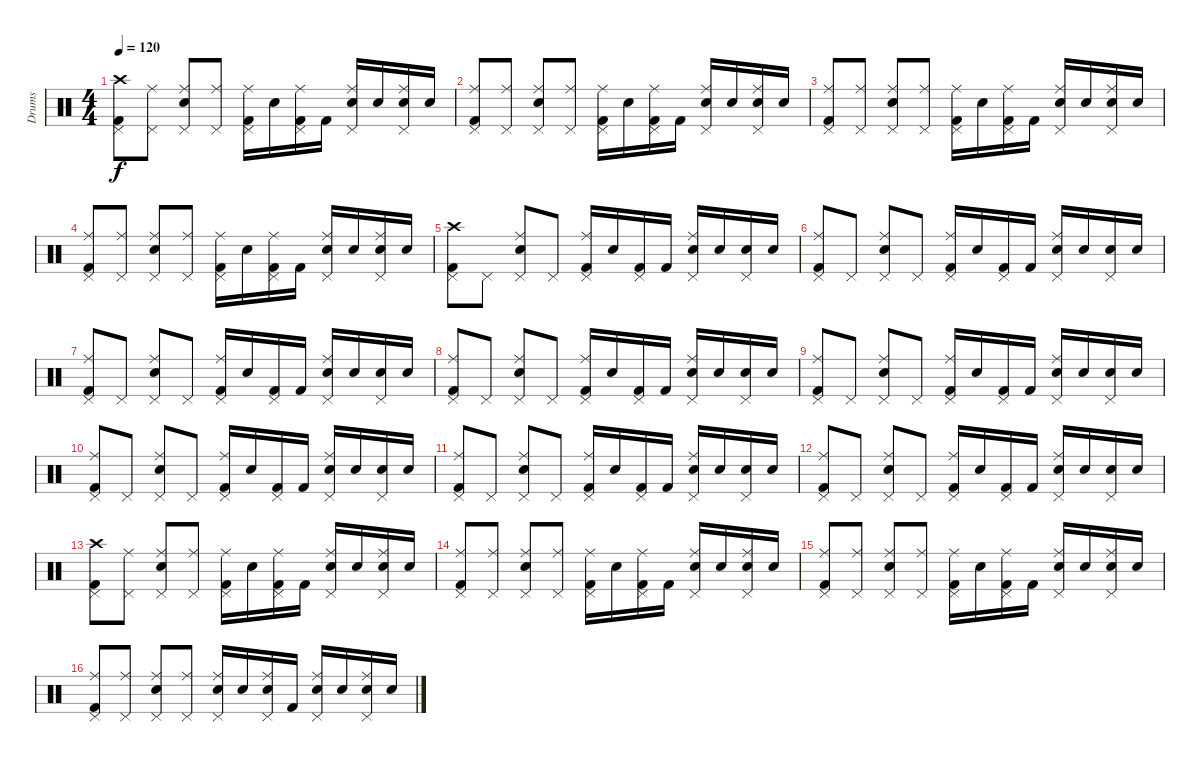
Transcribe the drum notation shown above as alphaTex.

\track ("Drums" "Drums") {instrument percussion}
\staff {score}
\articulation defaults
\ts (4 4)
\tempo 120
\clef neutral
\ks c
("Crash high (hit)" "Kick (hit) 2" "Pedal Hi-Hat (hit)").8{dy f} ("Ride (middle)" "Pedal Hi-Hat (hit)").8 ("Ride (middle)" "Electric Snare (hit)" "Pedal Hi-Hat (hit)").8 ("Ride (middle)" "Pedal Hi-Hat (hit)").8 ("Ride (middle)" "Kick (hit) 2" "Pedal Hi-Hat (hit)").16 "Electric Snare (hit)".16 ("Ride (middle)" "Kick (hit) 2" "Pedal Hi-Hat (hit)").16 "Kick (hit) 2".16 ("Ride (middle)" "Electric Snare (hit)" "Pedal Hi-Hat (hit)").16 "Electric Snare (hit)".16 ("Ride (middle)" "Electric Snare (hit)" "Pedal Hi-Hat (hit)").16 "Electric Snare (hit)".16 |
("Ride (middle)" "Kick (hit) 2" "Pedal Hi-Hat (hit)").8 ("Ride (middle)" "Pedal Hi-Hat (hit)").8 ("Ride (middle)" "Electric Snare (hit)" "Pedal Hi-Hat (hit)").8 ("Ride (middle)" "Pedal Hi-Hat (hit)").8 ("Ride (middle)" "Kick (hit) 2" "Pedal Hi-Hat (hit)").16 "Electric Snare (hit)".16 ("Ride (middle)" "Kick (hit) 2" "Pedal Hi-Hat (hit)").16 "Kick (hit) 2".16 ("Ride (middle)" "Electric Snare (hit)" "Pedal Hi-Hat (hit)").16 "Electric Snare (hit)".16 ("Ride (middle)" "Electric Snare (hit)" "Pedal Hi-Hat (hit)").16 "Electric Snare (hit)".16 |
("Ride (middle)" "Kick (hit) 2" "Pedal Hi-Hat (hit)").8 ("Ride (middle)" "Pedal Hi-Hat (hit)").8 ("Ride (middle)" "Electric Snare (hit)" "Pedal Hi-Hat (hit)").8 ("Ride (middle)" "Pedal Hi-Hat (hit)").8 ("Ride (middle)" "Kick (hit) 2" "Pedal Hi-Hat (hit)").16 "Electric Snare (hit)".16 ("Ride (middle)" "Kick (hit) 2" "Pedal Hi-Hat (hit)").16 "Kick (hit) 2".16 ("Ride (middle)" "Electric Snare (hit)" "Pedal Hi-Hat (hit)").16 "Electric Snare (hit)".16 ("Ride (middle)" "Electric Snare (hit)" "Pedal Hi-Hat (hit)").16 "Electric Snare (hit)".16 |
("Ride (middle)" "Kick (hit) 2" "Pedal Hi-Hat (hit)").8 ("Ride (middle)" "Pedal Hi-Hat (hit)").8 ("Ride (middle)" "Electric Snare (hit)" "Pedal Hi-Hat (hit)").8 ("Ride (middle)" "Pedal Hi-Hat (hit)").8 ("Ride (middle)" "Kick (hit) 2" "Pedal Hi-Hat (hit)").16 "Electric Snare (hit)".16 ("Ride (middle)" "Kick (hit) 2" "Pedal Hi-Hat (hit)").16 "Kick (hit) 2".16 ("Ride (middle)" "Electric Snare (hit)" "Pedal Hi-Hat (hit)").16 "Electric Snare (hit)".16 ("Ride (middle)" "Electric Snare (hit)" "Pedal Hi-Hat (hit)").16 "Electric Snare (hit)".16 |
("Crash high (hit)" "Kick (hit) 2" "Pedal Hi-Hat (hit)").8 "Pedal Hi-Hat (hit)".8 ("Ride (middle)" "Electric Snare (hit)" "Pedal Hi-Hat (hit)").8 "Pedal Hi-Hat (hit)".8 ("Ride (middle)" "Kick (hit) 2" "Pedal Hi-Hat (hit)").16 "Electric Snare (hit)".16 ("Kick (hit) 2" "Pedal Hi-Hat (hit)").16 "Kick (hit) 2".16 ("Ride (middle)" "Electric Snare (hit)" "Pedal Hi-Hat (hit)").16 "Electric Snare (hit)".16 ("Electric Snare (hit)" "Pedal Hi-Hat (hit)").16 "Electric Snare (hit)".16 |
("Ride (middle)" "Kick (hit) 2" "Pedal Hi-Hat (hit)").8 "Pedal Hi-Hat (hit)".8 ("Ride (middle)" "Electric Snare (hit)" "Pedal Hi-Hat (hit)").8 "Pedal Hi-Hat (hit)".8 ("Ride (middle)" "Kick (hit) 2" "Pedal Hi-Hat (hit)").16 "Electric Snare (hit)".16 ("Kick (hit) 2" "Pedal Hi-Hat (hit)").16 "Kick (hit) 2".16 ("Ride (middle)" "Electric Snare (hit)" "Pedal Hi-Hat (hit)").16 "Electric Snare (hit)".16 ("Electric Snare (hit)" "Pedal Hi-Hat (hit)").16 "Electric Snare (hit)".16 |
("Ride (middle)" "Kick (hit) 2" "Pedal Hi-Hat (hit)").8 "Pedal Hi-Hat (hit)".8 ("Ride (middle)" "Electric Snare (hit)" "Pedal Hi-Hat (hit)").8 "Pedal Hi-Hat (hit)".8 ("Ride (middle)" "Kick (hit) 2" "Pedal Hi-Hat (hit)").16 "Electric Snare (hit)".16 ("Kick (hit) 2" "Pedal Hi-Hat (hit)").16 "Kick (hit) 2".16 ("Ride (middle)" "Electric Snare (hit)" "Pedal Hi-Hat (hit)").16 "Electric Snare (hit)".16 ("Electric Snare (hit)" "Pedal Hi-Hat (hit)").16 "Electric Snare (hit)".16 |
("Ride (middle)" "Kick (hit) 2" "Pedal Hi-Hat (hit)").8 "Pedal Hi-Hat (hit)".8 ("Ride (middle)" "Electric Snare (hit)" "Pedal Hi-Hat (hit)").8 "Pedal Hi-Hat (hit)".8 ("Ride (middle)" "Kick (hit) 2" "Pedal Hi-Hat (hit)").16 "Electric Snare (hit)".16 ("Kick (hit) 2" "Pedal Hi-Hat (hit)").16 "Kick (hit) 2".16 ("Ride (middle)" "Electric Snare (hit)" "Pedal Hi-Hat (hit)").16 "Electric Snare (hit)".16 ("Electric Snare (hit)" "Pedal Hi-Hat (hit)").16 "Electric Snare (hit)".16 |
("Ride (middle)" "Kick (hit) 2" "Pedal Hi-Hat (hit)").8 "Pedal Hi-Hat (hit)".8 ("Ride (middle)" "Electric Snare (hit)" "Pedal Hi-Hat (hit)").8 "Pedal Hi-Hat (hit)".8 ("Ride (middle)" "Kick (hit) 2" "Pedal Hi-Hat (hit)").16 "Electric Snare (hit)".16 ("Kick (hit) 2" "Pedal Hi-Hat (hit)").16 "Kick (hit) 2".16 ("Ride (middle)" "Electric Snare (hit)" "Pedal Hi-Hat (hit)").16 "Electric Snare (hit)".16 ("Electric Snare (hit)" "Pedal Hi-Hat (hit)").16 "Electric Snare (hit)".16 |
("Ride (middle)" "Kick (hit) 2" "Pedal Hi-Hat (hit)").8 "Pedal Hi-Hat (hit)".8 ("Ride (middle)" "Electric Snare (hit)" "Pedal Hi-Hat (hit)").8 "Pedal Hi-Hat (hit)".8 ("Ride (middle)" "Kick (hit) 2" "Pedal Hi-Hat (hit)").16 "Electric Snare (hit)".16 ("Kick (hit) 2" "Pedal Hi-Hat (hit)").16 "Kick (hit) 2".16 ("Ride (middle)" "Electric Snare (hit)" "Pedal Hi-Hat (hit)").16 "Electric Snare (hit)".16 ("Electric Snare (hit)" "Pedal Hi-Hat (hit)").16 "Electric Snare (hit)".16 |
("Ride (middle)" "Kick (hit) 2" "Pedal Hi-Hat (hit)").8 "Pedal Hi-Hat (hit)".8 ("Ride (middle)" "Electric Snare (hit)" "Pedal Hi-Hat (hit)").8 "Pedal Hi-Hat (hit)".8 ("Ride (middle)" "Kick (hit) 2" "Pedal Hi-Hat (hit)").16 "Electric Snare (hit)".16 ("Kick (hit) 2" "Pedal Hi-Hat (hit)").16 "Kick (hit) 2".16 ("Ride (middle)" "Electric Snare (hit)" "Pedal Hi-Hat (hit)").16 "Electric Snare (hit)".16 ("Electric Snare (hit)" "Pedal Hi-Hat (hit)").16 "Electric Snare (hit)".16 |
("Ride (middle)" "Kick (hit) 2" "Pedal Hi-Hat (hit)").8 "Pedal Hi-Hat (hit)".8 ("Ride (middle)" "Electric Snare (hit)" "Pedal Hi-Hat (hit)").8 "Pedal Hi-Hat (hit)".8 ("Ride (middle)" "Kick (hit) 2" "Pedal Hi-Hat (hit)").16 "Electric Snare (hit)".16 ("Kick (hit) 2" "Pedal Hi-Hat (hit)").16 "Kick (hit) 2".16 ("Ride (middle)" "Electric Snare (hit)" "Pedal Hi-Hat (hit)").16 "Electric Snare (hit)".16 ("Electric Snare (hit)" "Pedal Hi-Hat (hit)").16 "Electric Snare (hit)".16 |
("Crash high (hit)" "Kick (hit) 2" "Pedal Hi-Hat (hit)").8 ("Ride (middle)" "Pedal Hi-Hat (hit)").8 ("Ride (middle)" "Electric Snare (hit)" "Pedal Hi-Hat (hit)").8 ("Ride (middle)" "Pedal Hi-Hat (hit)").8 ("Ride (middle)" "Kick (hit) 2" "Pedal Hi-Hat (hit)").16 "Electric Snare (hit)".16 ("Ride (middle)" "Kick (hit) 2" "Pedal Hi-Hat (hit)").16 "Kick (hit) 2".16 ("Ride (middle)" "Electric Snare (hit)" "Pedal Hi-Hat (hit)").16 "Electric Snare (hit)".16 ("Ride (middle)" "Electric Snare (hit)" "Pedal Hi-Hat (hit)").16 "Electric Snare (hit)".16 |
("Ride (middle)" "Kick (hit) 2" "Pedal Hi-Hat (hit)").8 ("Ride (middle)" "Pedal Hi-Hat (hit)").8 ("Ride (middle)" "Electric Snare (hit)" "Pedal Hi-Hat (hit)").8 ("Ride (middle)" "Pedal Hi-Hat (hit)").8 ("Ride (middle)" "Kick (hit) 2" "Pedal Hi-Hat (hit)").16 "Electric Snare (hit)".16 ("Ride (middle)" "Kick (hit) 2" "Pedal Hi-Hat (hit)").16 "Kick (hit) 2".16 ("Ride (middle)" "Electric Snare (hit)" "Pedal Hi-Hat (hit)").16 "Electric Snare (hit)".16 ("Ride (middle)" "Electric Snare (hit)" "Pedal Hi-Hat (hit)").16 "Electric Snare (hit)".16 |
("Ride (middle)" "Kick (hit) 2" "Pedal Hi-Hat (hit)").8 ("Ride (middle)" "Pedal Hi-Hat (hit)").8 ("Ride (middle)" "Electric Snare (hit)" "Pedal Hi-Hat (hit)").8 ("Ride (middle)" "Pedal Hi-Hat (hit)").8 ("Ride (middle)" "Kick (hit) 2" "Pedal Hi-Hat (hit)").16 "Electric Snare (hit)".16 ("Ride (middle)" "Kick (hit) 2" "Pedal Hi-Hat (hit)").16 "Kick (hit) 2".16 ("Ride (middle)" "Electric Snare (hit)" "Pedal Hi-Hat (hit)").16 "Electric Snare (hit)".16 ("Ride (middle)" "Electric Snare (hit)" "Pedal Hi-Hat (hit)").16 "Electric Snare (hit)".16 |
("Ride (middle)" "Kick (hit) 2" "Pedal Hi-Hat (hit)").8 ("Ride (middle)" "Pedal Hi-Hat (hit)").8 ("Ride (middle)" "Electric Snare (hit)" "Pedal Hi-Hat (hit)").8 ("Ride (middle)" "Pedal Hi-Hat (hit)").8 ("Ride (middle)" "Electric Snare (hit)" "Pedal Hi-Hat (hit)").16 "Electric Snare (hit)".16 ("Ride (middle)" "Electric Snare (hit)" "Pedal Hi-Hat (hit)").16 "Kick (hit) 2".16 ("Ride (middle)" "Electric Snare (hit)" "Pedal Hi-Hat (hit)").16 "Electric Snare (hit)".16 ("Ride (middle)" "Electric Snare (hit)" "Pedal Hi-Hat (hit)").16 "Electric Snare (hit)".16
